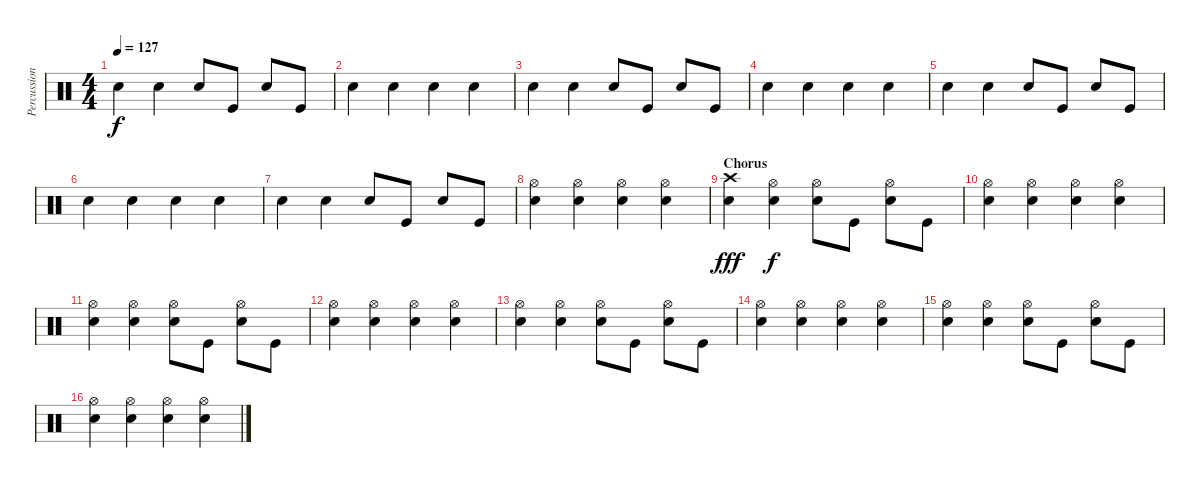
\track ("Percussion" "Percussion") {instrument percussion}
\staff {score}
\articulation defaults
\ts (4 4)
\tempo 127
\clef neutral
\ks c "Electric Snare (hit)".4{dy f} "Electric Snare (hit)".4 "Electric Snare (hit)".8 "Kick (hit)".8 "Electric Snare (hit)".8 "Kick (hit)".8
|
"Electric Snare (hit)".4 "Electric Snare (hit)".4 "Electric Snare (hit)".4 "Electric Snare (hit)".4 |
"Electric Snare (hit)".4 "Electric Snare (hit)".4 "Electric Snare (hit)".8 "Kick (hit)".8 "Electric Snare (hit)".8 "Kick (hit)".8 |
"Electric Snare (hit)".4 "Electric Snare (hit)".4 "Electric Snare (hit)".4 "Electric Snare (hit)".4 |
"Electric Snare (hit)".4 "Electric Snare (hit)".4 "Electric Snare (hit)".8 "Kick (hit)".8 "Electric Snare (hit)".8 "Kick (hit)".8 |
"Electric Snare (hit)".4 "Electric Snare (hit)".4 "Electric Snare (hit)".4 "Electric Snare (hit)".4 |
"Electric Snare (hit)".4 "Electric Snare (hit)".4 "Electric Snare (hit)".8 "Kick (hit)".8 "Electric Snare (hit)".8 "Kick (hit)".8 |
("Hi-Hat (open)" "Electric Snare (hit)").4 ("Hi-Hat (open)" "Electric Snare (hit)").4 ("Hi-Hat (open)" "Electric Snare (hit)").4 ("Hi-Hat (open)" "Electric Snare (hit)").4 |
\section ("" "Chorus")
("Crash high (hit)" "Electric Snare (hit)").4{dy fff} ("Hi-Hat (open)" "Electric Snare (hit)").4{dy f} ("Hi-Hat (open)" "Electric Snare (hit)").8 "Kick (hit)".8 ("Hi-Hat (open)" "Electric Snare (hit)").8 "Kick (hit)".8 |
("Hi-Hat (open)" "Electric Snare (hit)").4 ("Hi-Hat (open)" "Electric Snare (hit)").4 ("Hi-Hat (open)" "Electric Snare (hit)").4 ("Hi-Hat (open)" "Electric Snare (hit)").4 |
("Hi-Hat (open)" "Electric Snare (hit)").4 ("Hi-Hat (open)" "Electric Snare (hit)").4 ("Hi-Hat (open)" "Electric Snare (hit)").8 "Kick (hit)".8 ("Hi-Hat (open)" "Electric Snare (hit)").8 "Kick (hit)".8 |
("Hi-Hat (open)" "Electric Snare (hit)").4 ("Hi-Hat (open)" "Electric Snare (hit)").4 ("Hi-Hat (open)" "Electric Snare (hit)").4 ("Hi-Hat (open)" "Electric Snare (hit)").4 |
("Hi-Hat (open)" "Electric Snare (hit)").4 ("Hi-Hat (open)" "Electric Snare (hit)").4 ("Hi-Hat (open)" "Electric Snare (hit)").8 "Kick (hit)".8 ("Hi-Hat (open)" "Electric Snare (hit)").8 "Kick (hit)".8 |
("Hi-Hat (open)" "Electric Snare (hit)").4 ("Hi-Hat (open)" "Electric Snare (hit)").4 ("Hi-Hat (open)" "Electric Snare (hit)").4 ("Hi-Hat (open)" "Electric Snare (hit)").4 |
("Hi-Hat (open)" "Electric Snare (hit)").4 ("Hi-Hat (open)" "Electric Snare (hit)").4 ("Hi-Hat (open)" "Electric Snare (hit)").8 "Kick (hit)".8 ("Hi-Hat (open)" "Electric Snare (hit)").8 "Kick (hit)".8 |
("Hi-Hat (open)" "Electric Snare (hit)").4 ("Hi-Hat (open)" "Electric Snare (hit)").4 ("Hi-Hat (open)" "Electric Snare (hit)").4 ("Hi-Hat (open)" "Electric Snare (hit)").4
